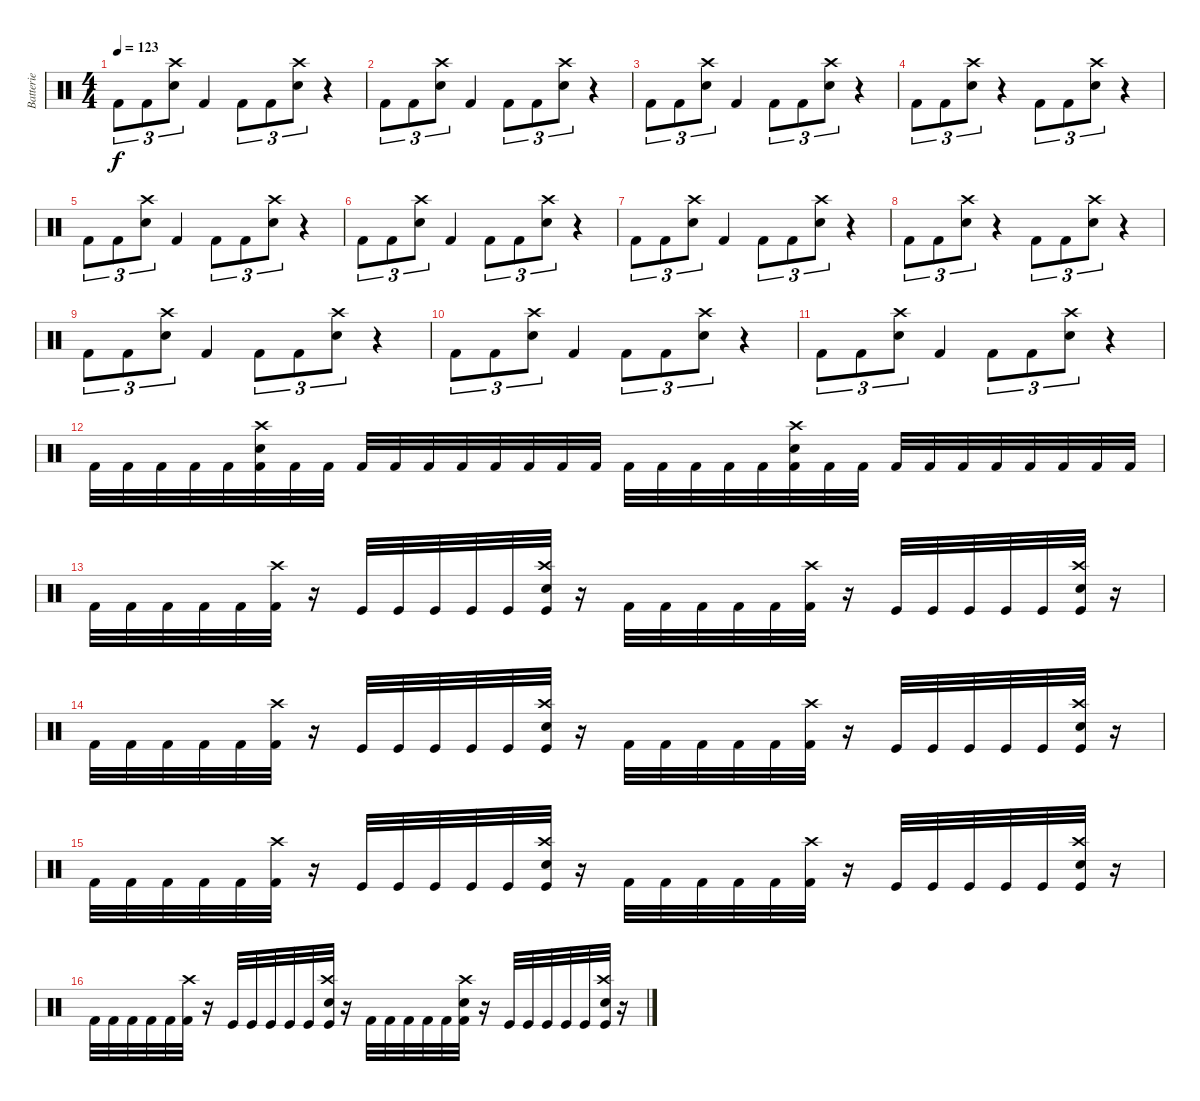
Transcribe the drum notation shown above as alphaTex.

\track ("Batterie" "Batterie") {instrument percussion}
\staff {score}
\articulation defaults
\ts (4 4)
\tempo 123
\clef neutral
\ks c "Kick (hit) 2".8{tu (3 2) dy f} "Kick (hit) 2".8{tu (3 2)}
("Snare (hit) 2" "Crash high (hit)").8{tu (3 2)} "Kick (hit) 2".4 "Kick (hit) 2".8{tu (3 2)} "Kick (hit) 2".8{tu (3 2)} ("Snare (hit) 2" "Crash high (hit)").8{tu (3 2)} r.4 |
"Kick (hit) 2".8{tu (3 2)} "Kick (hit) 2".8{tu (3 2)} ("Snare (hit) 2" "Crash high (hit)").8{tu (3 2)} "Kick (hit) 2".4 "Kick (hit) 2".8{tu (3 2)} "Kick (hit) 2".8{tu (3 2)} ("Snare (hit) 2" "Crash high (hit)").8{tu (3 2)} r.4 |
"Kick (hit) 2".8{tu (3 2)} "Kick (hit) 2".8{tu (3 2)} ("Snare (hit) 2" "Crash high (hit)").8{tu (3 2)} "Kick (hit) 2".4 "Kick (hit) 2".8{tu (3 2)} "Kick (hit) 2".8{tu (3 2)} ("Snare (hit) 2" "Crash high (hit)").8{tu (3 2)} r.4 |
"Kick (hit) 2".8{tu (3 2)} "Kick (hit) 2".8{tu (3 2)} ("Snare (hit) 2" "Crash high (hit)").8{tu (3 2)} r.4 "Kick (hit) 2".8{tu (3 2)} "Kick (hit) 2".8{tu (3 2)} ("Snare (hit) 2" "Crash high (hit)").8{tu (3 2)} r.4 |
"Kick (hit) 2".8{tu (3 2)} "Kick (hit) 2".8{tu (3 2)} ("Snare (hit) 2" "Crash high (hit)").8{tu (3 2)} "Kick (hit) 2".4 "Kick (hit) 2".8{tu (3 2)} "Kick (hit) 2".8{tu (3 2)} ("Snare (hit) 2" "Crash high (hit)").8{tu (3 2)} r.4 |
"Kick (hit) 2".8{tu (3 2)} "Kick (hit) 2".8{tu (3 2)} ("Snare (hit) 2" "Crash high (hit)").8{tu (3 2)} "Kick (hit) 2".4 "Kick (hit) 2".8{tu (3 2)} "Kick (hit) 2".8{tu (3 2)} ("Snare (hit) 2" "Crash high (hit)").8{tu (3 2)} r.4 |
"Kick (hit) 2".8{tu (3 2)} "Kick (hit) 2".8{tu (3 2)} ("Snare (hit) 2" "Crash high (hit)").8{tu (3 2)} "Kick (hit) 2".4 "Kick (hit) 2".8{tu (3 2)} "Kick (hit) 2".8{tu (3 2)} ("Snare (hit) 2" "Crash high (hit)").8{tu (3 2)} r.4 |
"Kick (hit) 2".8{tu (3 2)} "Kick (hit) 2".8{tu (3 2)} ("Snare (hit) 2" "Crash high (hit)").8{tu (3 2)} r.4 "Kick (hit) 2".8{tu (3 2)} "Kick (hit) 2".8{tu (3 2)} ("Snare (hit) 2" "Crash high (hit)").8{tu (3 2)} r.4 |
"Kick (hit) 2".8{tu (3 2)} "Kick (hit) 2".8{tu (3 2)} ("Snare (hit) 2" "Crash high (hit)").8{tu (3 2)} "Kick (hit) 2".4 "Kick (hit) 2".8{tu (3 2)} "Kick (hit) 2".8{tu (3 2)} ("Snare (hit) 2" "Crash high (hit)").8{tu (3 2)} r.4 |
"Kick (hit) 2".8{tu (3 2)} "Kick (hit) 2".8{tu (3 2)} ("Snare (hit) 2" "Crash high (hit)").8{tu (3 2)} "Kick (hit) 2".4 "Kick (hit) 2".8{tu (3 2)} "Kick (hit) 2".8{tu (3 2)} ("Snare (hit) 2" "Crash high (hit)").8{tu (3 2)} r.4 |
"Kick (hit) 2".8{tu (3 2)} "Kick (hit) 2".8{tu (3 2)} ("Snare (hit) 2" "Crash high (hit)").8{tu (3 2)} "Kick (hit) 2".4 "Kick (hit) 2".8{tu (3 2)} "Kick (hit) 2".8{tu (3 2)} ("Snare (hit) 2" "Crash high (hit)").8{tu (3 2)} r.4 |
"Kick (hit) 2".32 "Kick (hit) 2".32 "Kick (hit) 2".32 "Kick (hit) 2".32 "Kick (hit) 2".32 ("Kick (hit) 2" "Snare (hit) 2" "Crash high (hit)").32 "Kick (hit) 2".32 "Kick (hit) 2".32 "Kick (hit) 2".32 "Kick (hit) 2".32 "Kick (hit) 2".32 "Kick (hit) 2".32 "Kick (hit) 2".32 "Kick (hit) 2".32 "Kick (hit) 2".32 "Kick (hit) 2".32 "Kick (hit) 2".32 "Kick (hit) 2".32 "Kick (hit) 2".32 "Kick (hit) 2".32 "Kick (hit) 2".32 ("Kick (hit) 2" "Snare (hit) 2" "Crash high (hit)").32 "Kick (hit) 2".32 "Kick (hit) 2".32 "Kick (hit) 2".32 "Kick (hit) 2".32 "Kick (hit) 2".32 "Kick (hit) 2".32 "Kick (hit) 2".32 "Kick (hit) 2".32 "Kick (hit) 2".32 "Kick (hit) 2".32 |
\section ("" "")
"Kick (hit) 2".32 "Kick (hit) 2".32 "Kick (hit) 2".32 "Kick (hit) 2".32 "Kick (hit) 2".32 ("Kick (hit) 2" "Crash high (hit)").32 r.16 "Kick (hit)".32 "Kick (hit)".32 "Kick (hit)".32 "Kick (hit)".32 "Kick (hit)".32 ("Kick (hit)" "Snare (hit) 2" "Crash high (hit)").32 r.16 "Kick (hit) 2".32 "Kick (hit) 2".32 "Kick (hit) 2".32 "Kick (hit) 2".32 "Kick (hit) 2".32 ("Kick (hit) 2" "Crash high (hit)").32 r.16 "Kick (hit)".32 "Kick (hit)".32 "Kick (hit)".32 "Kick (hit)".32 "Kick (hit)".32 ("Kick (hit)" "Snare (hit) 2" "Crash high (hit)").32 r.16 |
"Kick (hit) 2".32 "Kick (hit) 2".32 "Kick (hit) 2".32 "Kick (hit) 2".32 "Kick (hit) 2".32 ("Kick (hit) 2" "Crash high (hit)").32 r.16 "Kick (hit)".32 "Kick (hit)".32 "Kick (hit)".32 "Kick (hit)".32 "Kick (hit)".32 ("Kick (hit)" "Snare (hit) 2" "Crash high (hit)").32 r.16 "Kick (hit) 2".32 "Kick (hit) 2".32 "Kick (hit) 2".32 "Kick (hit) 2".32 "Kick (hit) 2".32 ("Kick (hit) 2" "Crash high (hit)").32 r.16 "Kick (hit)".32 "Kick (hit)".32 "Kick (hit)".32 "Kick (hit)".32 "Kick (hit)".32 ("Kick (hit)" "Snare (hit) 2" "Crash high (hit)").32 r.16 |
"Kick (hit) 2".32 "Kick (hit) 2".32 "Kick (hit) 2".32 "Kick (hit) 2".32 "Kick (hit) 2".32 ("Kick (hit) 2" "Crash high (hit)").32 r.16 "Kick (hit)".32 "Kick (hit)".32 "Kick (hit)".32 "Kick (hit)".32 "Kick (hit)".32 ("Kick (hit)" "Snare (hit) 2" "Crash high (hit)").32 r.16 "Kick (hit) 2".32 "Kick (hit) 2".32 "Kick (hit) 2".32 "Kick (hit) 2".32 "Kick (hit) 2".32 ("Kick (hit) 2" "Crash high (hit)").32 r.16 "Kick (hit)".32 "Kick (hit)".32 "Kick (hit)".32 "Kick (hit)".32 "Kick (hit)".32 ("Kick (hit)" "Snare (hit) 2" "Crash high (hit)").32 r.16 |
"Kick (hit) 2".32 "Kick (hit) 2".32 "Kick (hit) 2".32 "Kick (hit) 2".32 "Kick (hit) 2".32 ("Kick (hit) 2" "Crash high (hit)").32 r.16 "Kick (hit)".32 "Kick (hit)".32 "Kick (hit)".32 "Kick (hit)".32 "Kick (hit)".32 ("Kick (hit)" "Snare (hit) 2" "Crash high (hit)").32 r.16 "Kick (hit) 2".32 "Kick (hit) 2".32 "Kick (hit) 2".32 "Kick (hit) 2".32 "Kick (hit) 2".32 ("Kick (hit) 2" "Snare (hit) 2" "Crash high (hit)").32 r.16 "Kick (hit)".32 "Kick (hit)".32 "Kick (hit)".32 "Kick (hit)".32 "Kick (hit)".32 ("Kick (hit)" "Snare (hit) 2" "Crash high (hit)").32 r.16
